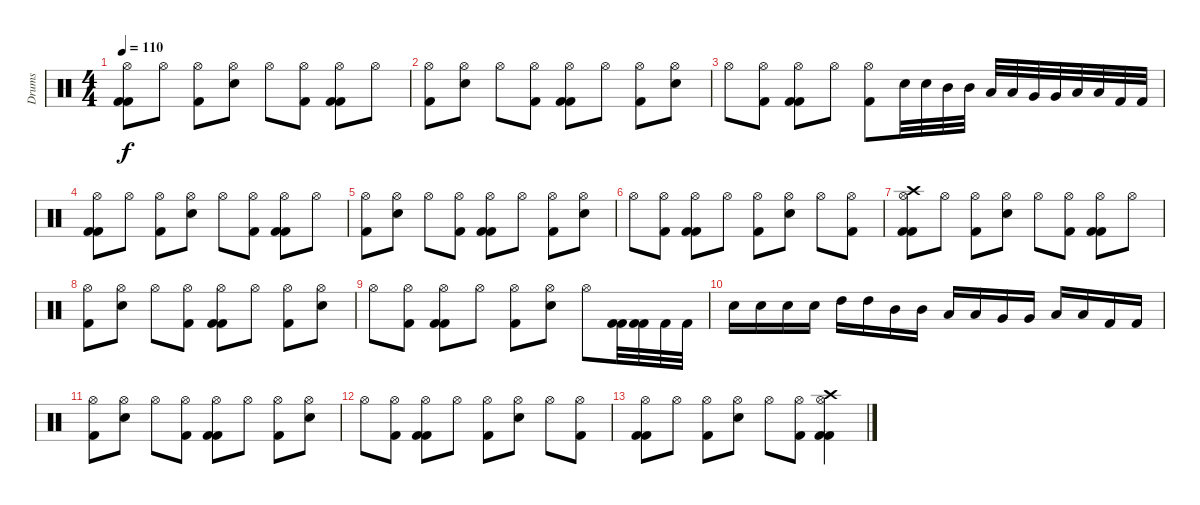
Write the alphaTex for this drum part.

\track ("Drums" "Drums") {instrument percussion}
\staff {score}
\articulation defaults
\ts (4 4)
\tempo 110
\clef neutral
\ks c
("Hi-Hat (open)" "Kick (hit) 2" "Kick (hit) 2").8{dy f} "Hi-Hat (open)".8 ("Hi-Hat (open)" "Kick (hit) 2").8 ("Hi-Hat (open)" "Electric Snare (hit)").8 "Hi-Hat (open)".8 ("Hi-Hat (open)" "Kick (hit) 2").8 ("Hi-Hat (open)" "Kick (hit) 2" "Kick (hit) 2").8 "Hi-Hat (open)".8 |
("Hi-Hat (open)" "Kick (hit) 2").8 ("Hi-Hat (open)" "Electric Snare (hit)").8 "Hi-Hat (open)".8 ("Hi-Hat (open)" "Kick (hit) 2").8 ("Hi-Hat (open)" "Kick (hit) 2" "Kick (hit) 2").8 "Hi-Hat (open)".8 ("Hi-Hat (open)" "Kick (hit) 2").8 ("Hi-Hat (open)" "Electric Snare (hit)").8 |
"Hi-Hat (open)".8 ("Hi-Hat (open)" "Kick (hit) 2").8 ("Hi-Hat (open)" "Kick (hit) 2" "Kick (hit) 2").8 "Hi-Hat (open)".8 ("Hi-Hat (open)" "Kick (hit) 2").8 "Electric Snare (hit)".32 "Electric Snare (hit)".32 "Mid Tom (hit)".32 "Mid Tom (hit)".32 "Low Tom (hit)".32 "Low Tom (hit)".32 "Very Low Tom (hit)".32 "Very Low Tom (hit)".32 "Low Floor Tom (hit)".32 "Low Floor Tom (hit)".32 "Kick (hit) 2".32 "Kick (hit) 2".32 |
("Hi-Hat (open)" "Kick (hit) 2" "Kick (hit) 2").8 "Hi-Hat (open)".8 ("Hi-Hat (open)" "Kick (hit) 2").8 ("Hi-Hat (open)" "Electric Snare (hit)").8 "Hi-Hat (open)".8 ("Hi-Hat (open)" "Kick (hit) 2").8 ("Hi-Hat (open)" "Kick (hit) 2" "Kick (hit) 2").8 "Hi-Hat (open)".8 |
("Hi-Hat (open)" "Kick (hit) 2").8 ("Hi-Hat (open)" "Electric Snare (hit)").8 "Hi-Hat (open)".8 ("Hi-Hat (open)" "Kick (hit) 2").8 ("Hi-Hat (open)" "Kick (hit) 2" "Kick (hit) 2").8 "Hi-Hat (open)".8 ("Hi-Hat (open)" "Kick (hit) 2").8 ("Hi-Hat (open)" "Electric Snare (hit)").8 |
"Hi-Hat (open)".8 ("Hi-Hat (open)" "Kick (hit) 2").8 ("Hi-Hat (open)" "Kick (hit) 2" "Kick (hit) 2").8 "Hi-Hat (open)".8 ("Hi-Hat (open)" "Kick (hit) 2").8 ("Hi-Hat (open)" "Electric Snare (hit)").8 "Hi-Hat (open)".8 ("Hi-Hat (open)" "Kick (hit) 2").8 |
("Crash high (hit)" "Hi-Hat (open)" "Kick (hit) 2" "Kick (hit) 2").8 "Hi-Hat (open)".8 ("Hi-Hat (open)" "Kick (hit) 2").8 ("Hi-Hat (open)" "Electric Snare (hit)").8 "Hi-Hat (open)".8 ("Hi-Hat (open)" "Kick (hit) 2").8 ("Hi-Hat (open)" "Kick (hit) 2" "Kick (hit) 2").8 "Hi-Hat (open)".8 |
("Hi-Hat (open)" "Kick (hit) 2").8 ("Hi-Hat (open)" "Electric Snare (hit)").8 "Hi-Hat (open)".8 ("Hi-Hat (open)" "Kick (hit) 2").8 ("Hi-Hat (open)" "Kick (hit) 2" "Kick (hit) 2").8 "Hi-Hat (open)".8 ("Hi-Hat (open)" "Kick (hit) 2").8 ("Hi-Hat (open)" "Electric Snare (hit)").8 |
"Hi-Hat (open)".8 ("Hi-Hat (open)" "Kick (hit) 2").8 ("Hi-Hat (open)" "Kick (hit) 2" "Kick (hit) 2").8 "Hi-Hat (open)".8 ("Hi-Hat (open)" "Kick (hit) 2").8 ("Hi-Hat (open)" "Electric Snare (hit)").8 "Hi-Hat (open)".8 ("Kick (hit) 2" "Kick (hit) 2").32 ("Kick (hit) 2" "Kick (hit) 2").32 "Kick (hit) 2".32 "Kick (hit) 2".32 |
"Electric Snare (hit)".16 "Electric Snare (hit)".16 "Electric Snare (hit)".16 "Electric Snare (hit)".16 "High Tom (hit)".16 "High Tom (hit)".16 "Mid Tom (hit)".16 "Mid Tom (hit)".16 "Low Tom (hit)".16 "Low Tom (hit)".16 "Very Low Tom (hit)".16 "Very Low Tom (hit)".16 "Low Floor Tom (hit)".16 "Low Floor Tom (hit)".16 "Kick (hit) 2".16 "Kick (hit) 2".16 |
("Hi-Hat (open)" "Kick (hit) 2").8 ("Hi-Hat (open)" "Electric Snare (hit)").8 "Hi-Hat (open)".8 ("Hi-Hat (open)" "Kick (hit) 2").8 ("Hi-Hat (open)" "Kick (hit) 2" "Kick (hit) 2").8 "Hi-Hat (open)".8 ("Hi-Hat (open)" "Kick (hit) 2").8 ("Hi-Hat (open)" "Electric Snare (hit)").8 |
"Hi-Hat (open)".8 ("Hi-Hat (open)" "Kick (hit) 2").8 ("Hi-Hat (open)" "Kick (hit) 2" "Kick (hit) 2").8 "Hi-Hat (open)".8 ("Hi-Hat (open)" "Kick (hit) 2").8 ("Hi-Hat (open)" "Electric Snare (hit)").8 "Hi-Hat (open)".8 ("Hi-Hat (open)" "Kick (hit) 2").8 |
("Hi-Hat (open)" "Kick (hit) 2" "Kick (hit) 2").8 "Hi-Hat (open)".8 ("Hi-Hat (open)" "Kick (hit) 2").8 ("Hi-Hat (open)" "Electric Snare (hit)").8 "Hi-Hat (open)".8 ("Hi-Hat (open)" "Kick (hit) 2").8 ("Crash high (hit)" "Hi-Hat (open)" "Kick (hit) 2" "Kick (hit) 2").4
